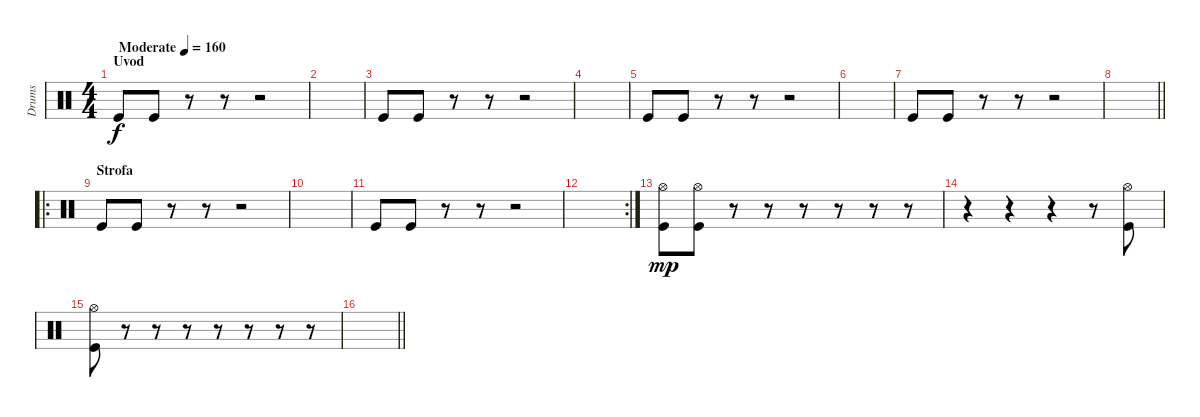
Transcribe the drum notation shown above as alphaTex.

\track ("Drums" "Drums") {instrument percussion}
\staff {score}
\articulation defaults
\ts (4 4)
\section ("" "Uvod")
\tempo (160 "Moderate")
\clef neutral
\ks c "Kick (hit)".8{dy f} "Kick (hit)".8
r.8 r.8 r.2 |
|
"Kick (hit)".8 "Kick (hit)".8 r.8 r.8 r.2 |
|
"Kick (hit)".8 "Kick (hit)".8 r.8 r.8 r.2 |
|
"Kick (hit)".8 "Kick (hit)".8 r.8 r.8 r.2 |
\barLineRight lightlight
|
\ro
\section ("" "Strofa")
"Kick (hit)".8 "Kick (hit)".8 r.8 r.8 r.2 |
|
"Kick (hit)".8 "Kick (hit)".8 r.8 r.8 r.2 |
\rc 2
|
("Kick (hit)" "Hi-Hat (open)").8{dy mp} ("Kick (hit)" "Hi-Hat (open)").8 r.8 r.8 r.8 r.8 r.8 r.8 |
r.4 r.4 r.4 r.8 ("Kick (hit)" "Hi-Hat (open)").8 |
("Kick (hit)" "Hi-Hat (open)").8 r.8 r.8 r.8 r.8 r.8 r.8 r.8 |
\barLineRight lightlight
